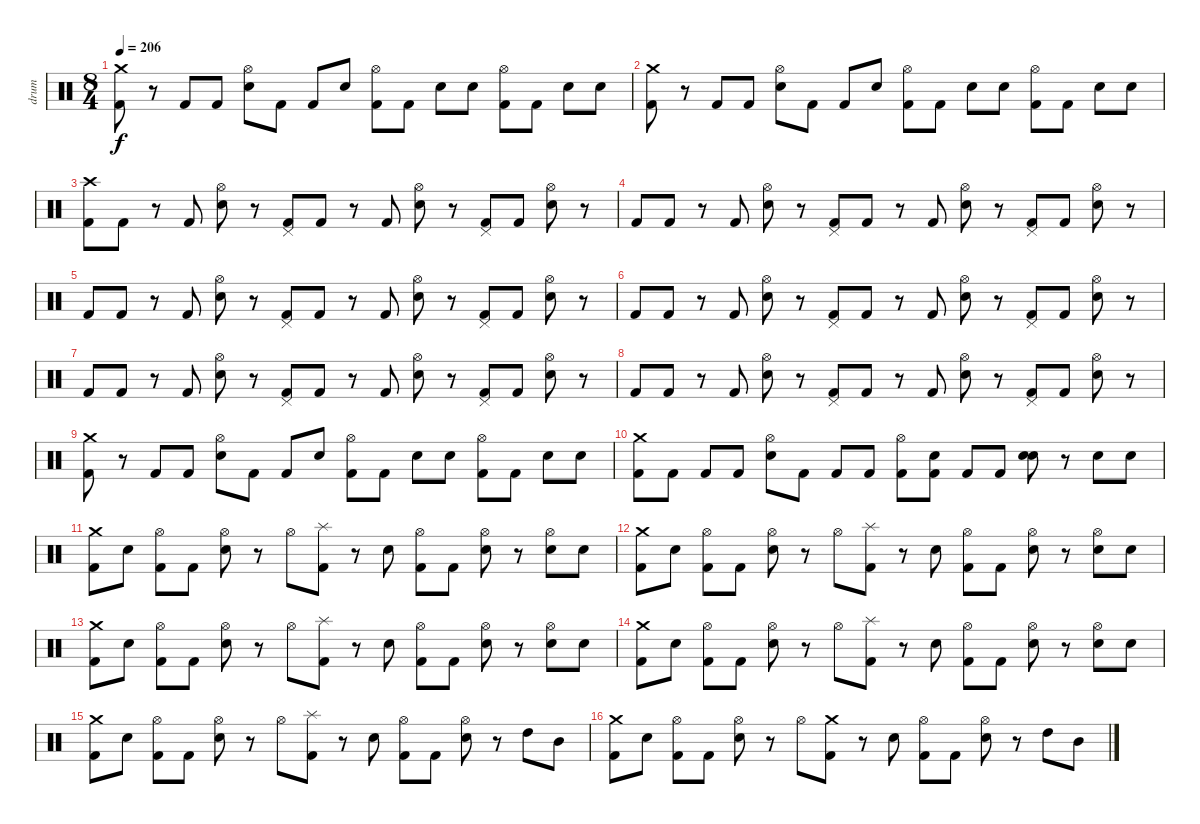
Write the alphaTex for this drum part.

\track ("drum" "drum") {instrument percussion}
\staff {score}
\articulation defaults
\ts (8 4)
\tempo 206
\clef neutral
\ks c
("Crash medium (hit)" "Kick (hit) 2").8{dy f} r.8 "Kick (hit) 2".8 "Kick (hit) 2".8 ("Hi-Hat (open)" "Electric Snare (hit)").8 "Kick (hit) 2".8 "Kick (hit) 2".8 "Electric Snare (hit)".8 ("Hi-Hat (open)" "Kick (hit) 2").8 "Kick (hit) 2".8 "Electric Snare (hit)".8 "Electric Snare (hit)".8 ("Hi-Hat (open)" "Kick (hit) 2").8 "Kick (hit) 2".8 "Electric Snare (hit)".8 "Electric Snare (hit)".8 |
("Crash medium (hit)" "Kick (hit) 2").8 r.8 "Kick (hit) 2".8 "Kick (hit) 2".8 ("Hi-Hat (open)" "Electric Snare (hit)").8 "Kick (hit) 2".8 "Kick (hit) 2".8 "Electric Snare (hit)".8 ("Hi-Hat (open)" "Kick (hit) 2").8 "Kick (hit) 2".8 "Electric Snare (hit)".8 "Electric Snare (hit)".8 ("Hi-Hat (open)" "Kick (hit) 2").8 "Kick (hit) 2".8 "Electric Snare (hit)".8 "Electric Snare (hit)".8 |
("Crash high (hit)" "Kick (hit) 2").8 "Kick (hit) 2".8 r.8 "Kick (hit) 2".8 ("Hi-Hat (open)" "Electric Snare (hit)").8 r.8 ("Pedal Hi-Hat (hit)" "Kick (hit) 2").8 "Kick (hit) 2".8 r.8 "Kick (hit) 2".8 ("Hi-Hat (open)" "Electric Snare (hit)").8 r.8 ("Pedal Hi-Hat (hit)" "Kick (hit) 2").8 "Kick (hit) 2".8 ("Hi-Hat (open)" "Electric Snare (hit)").8 r.8 |
"Kick (hit) 2".8 "Kick (hit) 2".8 r.8 "Kick (hit) 2".8 ("Hi-Hat (open)" "Electric Snare (hit)").8 r.8 ("Pedal Hi-Hat (hit)" "Kick (hit) 2").8 "Kick (hit) 2".8 r.8 "Kick (hit) 2".8 ("Hi-Hat (open)" "Electric Snare (hit)").8 r.8 ("Pedal Hi-Hat (hit)" "Kick (hit) 2").8 "Kick (hit) 2".8 ("Hi-Hat (open)" "Electric Snare (hit)").8 r.8 |
"Kick (hit) 2".8 "Kick (hit) 2".8 r.8 "Kick (hit) 2".8 ("Hi-Hat (open)" "Electric Snare (hit)").8 r.8 ("Pedal Hi-Hat (hit)" "Kick (hit) 2").8 "Kick (hit) 2".8 r.8 "Kick (hit) 2".8 ("Hi-Hat (open)" "Electric Snare (hit)").8 r.8 ("Pedal Hi-Hat (hit)" "Kick (hit) 2").8 "Kick (hit) 2".8 ("Hi-Hat (open)" "Electric Snare (hit)").8 r.8 |
"Kick (hit) 2".8 "Kick (hit) 2".8 r.8 "Kick (hit) 2".8 ("Hi-Hat (open)" "Electric Snare (hit)").8 r.8 ("Pedal Hi-Hat (hit)" "Kick (hit) 2").8 "Kick (hit) 2".8 r.8 "Kick (hit) 2".8 ("Hi-Hat (open)" "Electric Snare (hit)").8 r.8 ("Pedal Hi-Hat (hit)" "Kick (hit) 2").8 "Kick (hit) 2".8 ("Hi-Hat (open)" "Electric Snare (hit)").8 r.8 |
"Kick (hit) 2".8 "Kick (hit) 2".8 r.8 "Kick (hit) 2".8 ("Hi-Hat (open)" "Electric Snare (hit)").8 r.8 ("Pedal Hi-Hat (hit)" "Kick (hit) 2").8 "Kick (hit) 2".8 r.8 "Kick (hit) 2".8 ("Hi-Hat (open)" "Electric Snare (hit)").8 r.8 ("Pedal Hi-Hat (hit)" "Kick (hit) 2").8 "Kick (hit) 2".8 ("Hi-Hat (open)" "Electric Snare (hit)").8 r.8 |
"Kick (hit) 2".8 "Kick (hit) 2".8 r.8 "Kick (hit) 2".8 ("Hi-Hat (open)" "Electric Snare (hit)").8 r.8 ("Pedal Hi-Hat (hit)" "Kick (hit) 2").8 "Kick (hit) 2".8 r.8 "Kick (hit) 2".8 ("Hi-Hat (open)" "Electric Snare (hit)").8 r.8 ("Pedal Hi-Hat (hit)" "Kick (hit) 2").8 "Kick (hit) 2".8 ("Hi-Hat (open)" "Electric Snare (hit)").8 r.8 |
("Crash medium (hit)" "Kick (hit) 2").8 r.8 "Kick (hit) 2".8 "Kick (hit) 2".8 ("Hi-Hat (open)" "Electric Snare (hit)").8 "Kick (hit) 2".8 "Kick (hit) 2".8 "Electric Snare (hit)".8 ("Hi-Hat (open)" "Kick (hit) 2").8 "Kick (hit) 2".8 "Electric Snare (hit)".8 "Electric Snare (hit)".8 ("Hi-Hat (open)" "Kick (hit) 2").8 "Kick (hit) 2".8 "Electric Snare (hit)".8 "Electric Snare (hit)".8 |
("Crash medium (hit)" "Kick (hit) 2").8 "Kick (hit) 2".8 "Kick (hit) 2".8 "Kick (hit) 2".8 ("Hi-Hat (open)" "Electric Snare (hit)").8 "Kick (hit) 2".8 "Kick (hit) 2".8 "Kick (hit) 2".8 ("Hi-Hat (open)" "Kick (hit) 2").8 ("Electric Snare (hit)" "Kick (hit) 2").8 "Kick (hit) 2".8 "Kick (hit) 2".8 ("Electric Snare (hit)" "Electric Snare (hit)").8{bd 480} r.8 "Electric Snare (hit)".8 "Electric Snare (hit)".8 |
("Crash medium (hit)" "Kick (hit) 2").8 "Electric Snare (hit)".8 ("Hi-Hat (open)" "Kick (hit) 2").8 "Kick (hit) 2".8 ("Hi-Hat (open)" "Electric Snare (hit)").8 r.8 "Hi-Hat (open)".8 ("Splash (hit)" "Kick (hit) 2").8 r.8 "Electric Snare (hit)".8 ("Hi-Hat (open)" "Kick (hit) 2").8 "Kick (hit) 2".8 ("Hi-Hat (open)" "Electric Snare (hit)").8 r.8 ("Hi-Hat (open)" "Electric Snare (hit)").8 "Electric Snare (hit)".8 |
("Crash medium (hit)" "Kick (hit) 2").8 "Electric Snare (hit)".8 ("Hi-Hat (open)" "Kick (hit) 2").8 "Kick (hit) 2".8 ("Hi-Hat (open)" "Electric Snare (hit)").8 r.8 "Hi-Hat (open)".8 ("Splash (hit)" "Kick (hit) 2").8 r.8 "Electric Snare (hit)".8 ("Hi-Hat (open)" "Kick (hit) 2").8 "Kick (hit) 2".8 ("Hi-Hat (open)" "Electric Snare (hit)").8 r.8 ("Hi-Hat (open)" "Electric Snare (hit)").8 "Electric Snare (hit)".8 |
("Crash medium (hit)" "Kick (hit) 2").8 "Electric Snare (hit)".8 ("Hi-Hat (open)" "Kick (hit) 2").8 "Kick (hit) 2".8 ("Hi-Hat (open)" "Electric Snare (hit)").8 r.8 "Hi-Hat (open)".8 ("Splash (hit)" "Kick (hit) 2").8 r.8 "Electric Snare (hit)".8 ("Hi-Hat (open)" "Kick (hit) 2").8 "Kick (hit) 2".8 ("Hi-Hat (open)" "Electric Snare (hit)").8 r.8 ("Hi-Hat (open)" "Electric Snare (hit)").8 "Electric Snare (hit)".8 |
("Crash medium (hit)" "Kick (hit) 2").8 "Electric Snare (hit)".8 ("Hi-Hat (open)" "Kick (hit) 2").8 "Kick (hit) 2".8 ("Hi-Hat (open)" "Electric Snare (hit)").8 r.8 "Hi-Hat (open)".8 ("Splash (hit)" "Kick (hit) 2").8 r.8 "Electric Snare (hit)".8 ("Hi-Hat (open)" "Kick (hit) 2").8 "Kick (hit) 2".8 ("Hi-Hat (open)" "Electric Snare (hit)").8 r.8 ("Hi-Hat (open)" "Electric Snare (hit)").8 "Electric Snare (hit)".8 |
("Crash medium (hit)" "Kick (hit) 2").8 "Electric Snare (hit)".8 ("Hi-Hat (open)" "Kick (hit) 2").8 "Kick (hit) 2".8 ("Hi-Hat (open)" "Electric Snare (hit)").8 r.8 "Hi-Hat (open)".8 ("Splash (hit)" "Kick (hit) 2").8 r.8 "Electric Snare (hit)".8 ("Hi-Hat (open)" "Kick (hit) 2").8 "Kick (hit) 2".8 ("Hi-Hat (open)" "Electric Snare (hit)").8 r.8 "High Tom (hit)".8 "Mid Tom (hit)".8 |
("Crash medium (hit)" "Kick (hit) 2").8 "Electric Snare (hit)".8 ("Hi-Hat (open)" "Kick (hit) 2").8 "Kick (hit) 2".8 ("Hi-Hat (open)" "Electric Snare (hit)").8 r.8 "Hi-Hat (open)".8 ("Crash medium (hit)" "Kick (hit) 2").8 r.8 "Electric Snare (hit)".8 ("Hi-Hat (open)" "Kick (hit) 2").8 "Kick (hit) 2".8 ("Hi-Hat (open)" "Electric Snare (hit)").8 r.8 "High Tom (hit)".8 "Mid Tom (hit)".8
